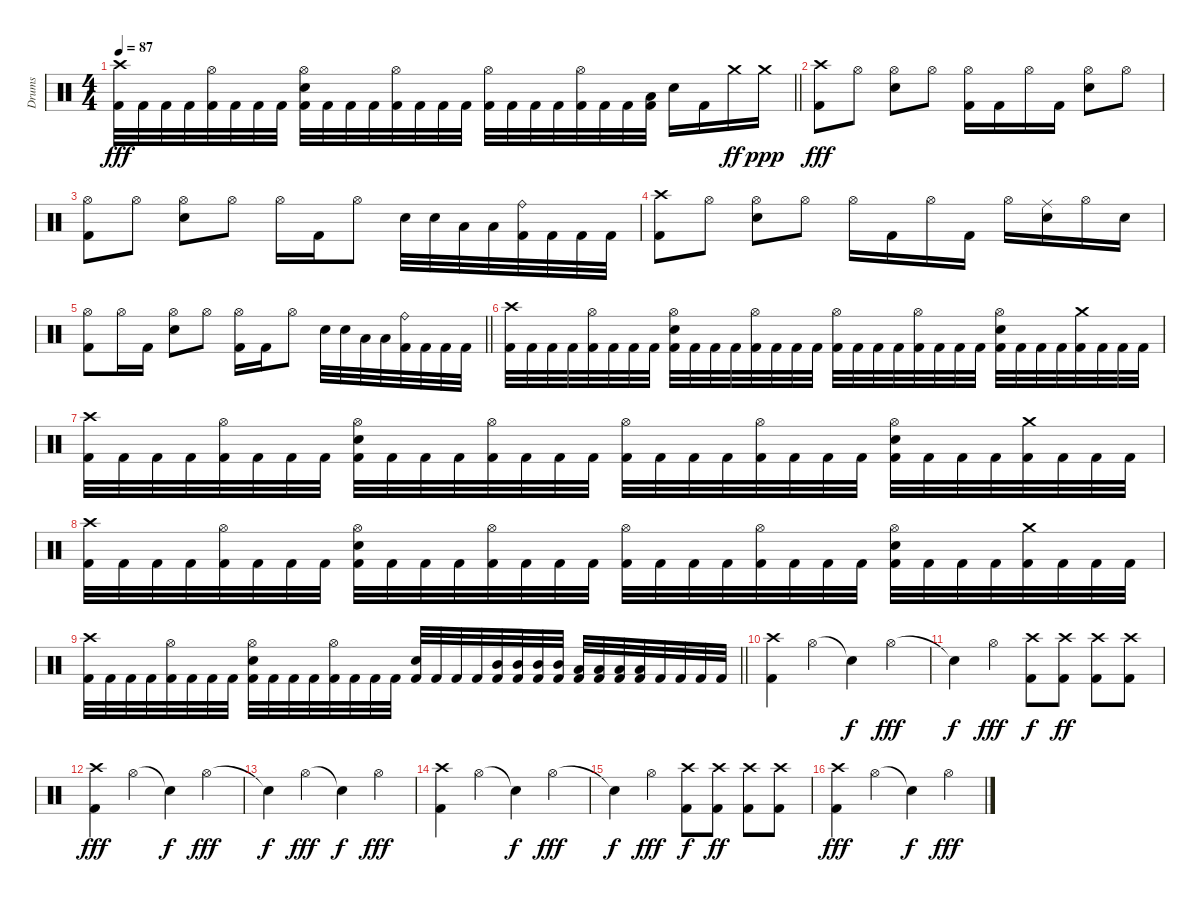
\track ("Drums" "Drums") {instrument percussion}
\staff {score}
\articulation defaults
\ts (4 4)
\tempo 87
\clef neutral
\barLineRight lightlight
\ks c
("Crash high (hit)" "Kick (hit) 2").32{dy fff} "Kick (hit) 2".32 "Kick (hit) 2".32 "Kick (hit) 2".32 ("Hi-Hat (open)" "Kick (hit) 2").32 "Kick (hit) 2".32 "Kick (hit) 2".32 "Kick (hit) 2".32 ("Hi-Hat (open)" "Snare (hit) 2" "Kick (hit) 2").32 "Kick (hit) 2".32 "Kick (hit) 2".32 "Kick (hit) 2".32 ("Hi-Hat (open)" "Kick (hit) 2").32 "Kick (hit) 2".32 "Kick (hit) 2".32 "Kick (hit) 2".32 ("Hi-Hat (open)" "Kick (hit) 2").32 "Kick (hit) 2".32 "Kick (hit) 2".32 "Kick (hit) 2".32 ("Hi-Hat (open)" "Kick (hit) 2").32 "Kick (hit) 2".32 "Kick (hit) 2".32 ("Low Tom (hit)" "Kick (hit) 2").32 "Snare (hit) 2".16 "Kick (hit) 2".16 "Crash medium (hit)".16{dy ff} "Crash medium (hit)".16{dy ppp} |
\section ("" "")
("Crash high (hit)" "Kick (hit) 2").8{dy fff} "Hi-Hat (open)".8 ("Hi-Hat (open)" "Snare (hit) 2").8 "Hi-Hat (open)".8 ("Hi-Hat (open)" "Kick (hit) 2").16 "Kick (hit) 2".16 "Hi-Hat (open)".16 "Kick (hit) 2".16 ("Hi-Hat (open)" "Snare (hit) 2").8 "Hi-Hat (open)".8 |
("Hi-Hat (open)" "Kick (hit) 2").8 "Hi-Hat (open)".8 ("Hi-Hat (open)" "Snare (hit) 2").8 "Hi-Hat (open)".8 "Hi-Hat (open)".16 "Kick (hit) 2".16 "Hi-Hat (open)".8 "Snare (hit) 2".32 "Snare (hit) 2".32 "Low Tom (hit)".32 "Low Tom (hit)".32 ("Ride (bell)" "Kick (hit) 2").32 "Kick (hit) 2".32 "Kick (hit) 2".32 "Kick (hit) 2".32 |
("Crash high (hit)" "Kick (hit) 2").8 "Hi-Hat (open)".8 ("Hi-Hat (open)" "Snare (hit) 2").8 "Hi-Hat (open)".8 "Hi-Hat (open)".16 "Kick (hit) 2".16 "Hi-Hat (open)".16 "Kick (hit) 2".16 "Hi-Hat (open)".16 ("Ride (middle)" "Snare (hit) 2").16 "Hi-Hat (open)".16 "Snare (hit) 2".16 |
\barLineRight lightlight
("Hi-Hat (open)" "Kick (hit) 2").8 "Hi-Hat (open)".16 "Kick (hit) 2".16 ("Hi-Hat (open)" "Snare (hit) 2").8 "Hi-Hat (open)".8 ("Hi-Hat (open)" "Kick (hit) 2").16 "Kick (hit) 2".16 "Hi-Hat (open)".8 "Snare (hit) 2".32 "Snare (hit) 2".32 "Low Tom (hit)".32 "Low Tom (hit)".32 ("Ride (bell)" "Kick (hit) 2").32 "Kick (hit) 2".32 "Kick (hit) 2".32 "Kick (hit) 2".32 |
\section ("" "")
("Crash high (hit)" "Kick (hit) 2").32 "Kick (hit) 2".32 "Kick (hit) 2".32 "Kick (hit) 2".32 ("Hi-Hat (open)" "Kick (hit) 2").32 "Kick (hit) 2".32 "Kick (hit) 2".32 "Kick (hit) 2".32 ("Hi-Hat (open)" "Snare (hit) 2" "Kick (hit) 2").32 "Kick (hit) 2".32 "Kick (hit) 2".32 "Kick (hit) 2".32 ("Hi-Hat (open)" "Kick (hit) 2").32 "Kick (hit) 2".32 "Kick (hit) 2".32 "Kick (hit) 2".32 ("Hi-Hat (open)" "Kick (hit) 2").32 "Kick (hit) 2".32 "Kick (hit) 2".32 "Kick (hit) 2".32 ("Hi-Hat (open)" "Kick (hit) 2").32 "Kick (hit) 2".32 "Kick (hit) 2".32 "Kick (hit) 2".32 ("Hi-Hat (open)" "Snare (hit) 2" "Kick (hit) 2").32 "Kick (hit) 2".32 "Kick (hit) 2".32 "Kick (hit) 2".32 ("Crash medium (hit)" "Kick (hit) 2").32 "Kick (hit) 2".32 "Kick (hit) 2".32 "Kick (hit) 2".32 |
("Crash high (hit)" "Kick (hit) 2").32 "Kick (hit) 2".32 "Kick (hit) 2".32 "Kick (hit) 2".32 ("Hi-Hat (open)" "Kick (hit) 2").32 "Kick (hit) 2".32 "Kick (hit) 2".32 "Kick (hit) 2".32 ("Hi-Hat (open)" "Snare (hit) 2" "Kick (hit) 2").32 "Kick (hit) 2".32 "Kick (hit) 2".32 "Kick (hit) 2".32 ("Hi-Hat (open)" "Kick (hit) 2").32 "Kick (hit) 2".32 "Kick (hit) 2".32 "Kick (hit) 2".32 ("Hi-Hat (open)" "Kick (hit) 2").32 "Kick (hit) 2".32 "Kick (hit) 2".32 "Kick (hit) 2".32 ("Hi-Hat (open)" "Kick (hit) 2").32 "Kick (hit) 2".32 "Kick (hit) 2".32 "Kick (hit) 2".32 ("Hi-Hat (open)" "Snare (hit) 2" "Kick (hit) 2").32 "Kick (hit) 2".32 "Kick (hit) 2".32 "Kick (hit) 2".32 ("Crash medium (hit)" "Kick (hit) 2").32 "Kick (hit) 2".32 "Kick (hit) 2".32 "Kick (hit) 2".32 |
("Crash high (hit)" "Kick (hit) 2").32 "Kick (hit) 2".32 "Kick (hit) 2".32 "Kick (hit) 2".32 ("Hi-Hat (open)" "Kick (hit) 2").32 "Kick (hit) 2".32 "Kick (hit) 2".32 "Kick (hit) 2".32 ("Hi-Hat (open)" "Snare (hit) 2" "Kick (hit) 2").32 "Kick (hit) 2".32 "Kick (hit) 2".32 "Kick (hit) 2".32 ("Hi-Hat (open)" "Kick (hit) 2").32 "Kick (hit) 2".32 "Kick (hit) 2".32 "Kick (hit) 2".32 ("Hi-Hat (open)" "Kick (hit) 2").32 "Kick (hit) 2".32 "Kick (hit) 2".32 "Kick (hit) 2".32 ("Hi-Hat (open)" "Kick (hit) 2").32 "Kick (hit) 2".32 "Kick (hit) 2".32 "Kick (hit) 2".32 ("Hi-Hat (open)" "Snare (hit) 2" "Kick (hit) 2").32 "Kick (hit) 2".32 "Kick (hit) 2".32 "Kick (hit) 2".32 ("Crash medium (hit)" "Kick (hit) 2").32 "Kick (hit) 2".32 "Kick (hit) 2".32 "Kick (hit) 2".32 |
\barLineRight lightlight
("Crash high (hit)" "Kick (hit) 2").32 "Kick (hit) 2".32 "Kick (hit) 2".32 "Kick (hit) 2".32 ("Hi-Hat (open)" "Kick (hit) 2").32 "Kick (hit) 2".32 "Kick (hit) 2".32 "Kick (hit) 2".32 ("Hi-Hat (open)" "Snare (hit) 2" "Kick (hit) 2").32 "Kick (hit) 2".32 "Kick (hit) 2".32 "Kick (hit) 2".32 ("Hi-Hat (open)" "Kick (hit) 2").32 "Kick (hit) 2".32 "Kick (hit) 2".32 "Kick (hit) 2".32 ("Snare (hit) 2" "Kick (hit) 2").32 "Kick (hit) 2".32 "Kick (hit) 2".32 "Kick (hit) 2".32 ("Mid Tom (hit)" "Kick (hit) 2").32 ("Mid Tom (hit)" "Kick (hit) 2").32 ("Mid Tom (hit)" "Kick (hit) 2").32 ("Mid Tom (hit)" "Kick (hit) 2").32 ("Low Tom (hit)" "Kick (hit) 2").32 ("Low Tom (hit)" "Kick (hit) 2").32 ("Low Tom (hit)" "Kick (hit) 2").32 ("Low Tom (hit)" "Kick (hit) 2").32 "Kick (hit) 2".32 "Kick (hit) 2".32 "Kick (hit) 2".32 "Kick (hit) 2".32 |
\section ("" "")
("Crash high (hit)" "Kick (hit) 2").4 "Hi-Hat (open)".4 "Snare (hit)"{t}.4{dy f} "Hi-Hat (open)".4{dy fff} |
"Snare (hit)"{t}.4{dy f} "Hi-Hat (open)".4{dy fff} ("Crash high (hit)" "Kick (hit) 2").8{dy f} ("Crash high (hit)" "Kick (hit) 2").8{dy ff} ("Crash high (hit)" "Kick (hit) 2").8 ("Crash high (hit)" "Kick (hit) 2").8 |
("Crash high (hit)" "Kick (hit) 2").4{dy fff} "Hi-Hat (open)".4 "Snare (hit)"{t}.4{dy f} "Hi-Hat (open)".4{dy fff} |
"Snare (hit)"{t}.4{dy f} "Hi-Hat (open)".4{dy fff} "Snare (hit)"{t}.4{dy f} "Hi-Hat (open)".4{dy fff} |
("Crash high (hit)" "Kick (hit) 2").4 "Hi-Hat (open)".4 "Snare (hit)"{t}.4{dy f} "Hi-Hat (open)".4{dy fff} |
"Snare (hit)"{t}.4{dy f} "Hi-Hat (open)".4{dy fff} ("Crash high (hit)" "Kick (hit) 2").8{dy f} ("Crash high (hit)" "Kick (hit) 2").8{dy ff} ("Crash high (hit)" "Kick (hit) 2").8 ("Crash high (hit)" "Kick (hit) 2").8 |
("Crash high (hit)" "Kick (hit) 2").4{dy fff} "Hi-Hat (open)".4 "Snare (hit)"{t}.4{dy f} "Hi-Hat (open)".4{dy fff}
